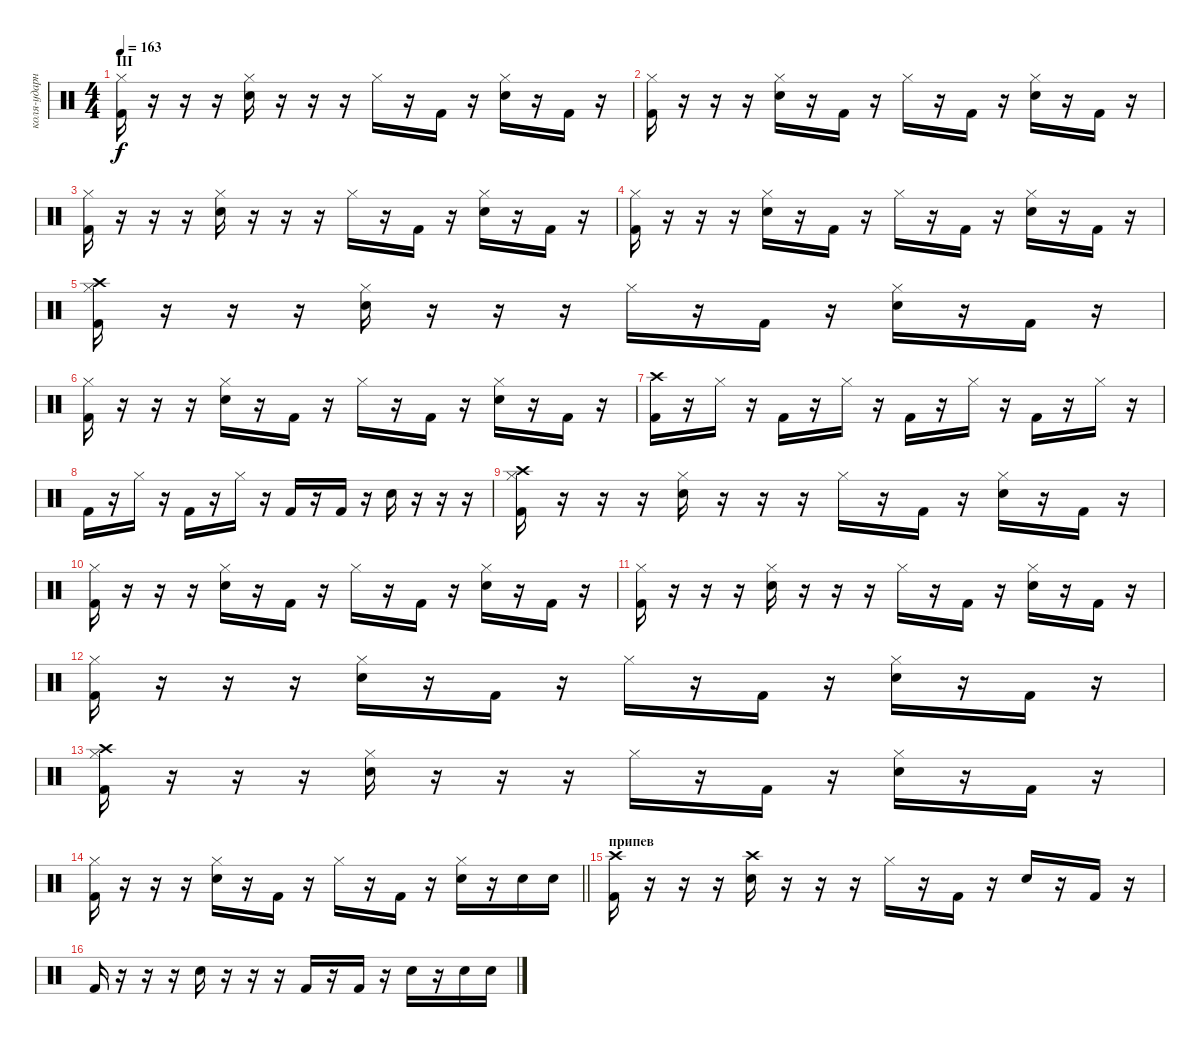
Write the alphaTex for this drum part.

\track ("коля-ударные" "коля-ударн") {instrument percussion}
\staff {score}
\articulation defaults
\ts (4 4)
\section ("" "III")
\tempo 163
\clef neutral
\ks c
("Kick (hit) 2" "Hi-Hat (closed)").16{dy f} r.16 r.16 r.16 ("Electric Snare (hit)" "Hi-Hat (closed)").16 r.16 r.16 r.16 "Hi-Hat (closed)".16 r.16 "Kick (hit) 2".16 r.16 ("Electric Snare (hit)" "Hi-Hat (closed)").16 r.16 "Kick (hit) 2".16 r.16 |
("Kick (hit) 2" "Hi-Hat (closed)").16 r.16 r.16 r.16 ("Electric Snare (hit)" "Hi-Hat (closed)").16 r.16 "Kick (hit) 2".16 r.16 "Hi-Hat (closed)".16 r.16 "Kick (hit) 2".16 r.16 ("Electric Snare (hit)" "Hi-Hat (closed)").16 r.16 "Kick (hit) 2".16 r.16 |
("Kick (hit) 2" "Hi-Hat (closed)").16 r.16 r.16 r.16 ("Electric Snare (hit)" "Hi-Hat (closed)").16 r.16 r.16 r.16 "Hi-Hat (closed)".16 r.16 "Kick (hit) 2".16 r.16 ("Electric Snare (hit)" "Hi-Hat (closed)").16 r.16 "Kick (hit) 2".16 r.16 |
("Kick (hit) 2" "Hi-Hat (closed)").16 r.16 r.16 r.16 ("Electric Snare (hit)" "Hi-Hat (closed)").16 r.16 "Kick (hit) 2".16 r.16 "Hi-Hat (closed)".16 r.16 "Kick (hit) 2".16 r.16 ("Electric Snare (hit)" "Hi-Hat (closed)").16 r.16 "Kick (hit) 2".16 r.16 |
("Kick (hit) 2" "Crash high (hit)" "Hi-Hat (closed)").16 r.16 r.16 r.16 ("Electric Snare (hit)" "Hi-Hat (closed)").16 r.16 r.16 r.16 "Hi-Hat (closed)".16 r.16 "Kick (hit) 2".16 r.16 ("Electric Snare (hit)" "Hi-Hat (closed)").16 r.16 "Kick (hit) 2".16 r.16 |
("Kick (hit) 2" "Hi-Hat (closed)").16 r.16 r.16 r.16 ("Electric Snare (hit)" "Hi-Hat (closed)").16 r.16 "Kick (hit) 2".16 r.16 "Hi-Hat (closed)".16 r.16 "Kick (hit) 2".16 r.16 ("Electric Snare (hit)" "Hi-Hat (closed)").16 r.16 "Kick (hit) 2".16 r.16 |
("Kick (hit) 2" "Crash high (hit)").16 r.16 "Hi-Hat (closed)".16 r.16 "Kick (hit) 2".16 r.16 "Hi-Hat (closed)".16 r.16 "Kick (hit) 2".16 r.16 "Hi-Hat (closed)".16 r.16 "Kick (hit) 2".16 r.16 "Hi-Hat (closed)".16 r.16 |
"Kick (hit) 2".16 r.16 "Hi-Hat (closed)".16 r.16 "Kick (hit) 2".16 r.16 "Hi-Hat (closed)".16 r.16 "Kick (hit) 2".16 r.16 "Kick (hit) 2".16 r.16 "Electric Snare (hit)".16 r.16 r.16 r.16 |
("Kick (hit) 2" "Crash high (hit)" "Hi-Hat (closed)").16 r.16 r.16 r.16 ("Electric Snare (hit)" "Hi-Hat (closed)").16 r.16 r.16 r.16 "Hi-Hat (closed)".16 r.16 "Kick (hit) 2".16 r.16 ("Electric Snare (hit)" "Hi-Hat (closed)").16 r.16 "Kick (hit) 2".16 r.16 |
("Kick (hit) 2" "Hi-Hat (closed)").16 r.16 r.16 r.16 ("Electric Snare (hit)" "Hi-Hat (closed)").16 r.16 "Kick (hit) 2".16 r.16 "Hi-Hat (closed)".16 r.16 "Kick (hit) 2".16 r.16 ("Electric Snare (hit)" "Hi-Hat (closed)").16 r.16 "Kick (hit) 2".16 r.16 |
("Kick (hit) 2" "Hi-Hat (closed)").16 r.16 r.16 r.16 ("Electric Snare (hit)" "Hi-Hat (closed)").16 r.16 r.16 r.16 "Hi-Hat (closed)".16 r.16 "Kick (hit) 2".16 r.16 ("Electric Snare (hit)" "Hi-Hat (closed)").16 r.16 "Kick (hit) 2".16 r.16 |
("Kick (hit) 2" "Hi-Hat (closed)").16 r.16 r.16 r.16 ("Electric Snare (hit)" "Hi-Hat (closed)").16 r.16 "Kick (hit) 2".16 r.16 "Hi-Hat (closed)".16 r.16 "Kick (hit) 2".16 r.16 ("Electric Snare (hit)" "Hi-Hat (closed)").16 r.16 "Kick (hit) 2".16 r.16 |
("Kick (hit) 2" "Crash high (hit)" "Hi-Hat (closed)").16 r.16 r.16 r.16 ("Electric Snare (hit)" "Hi-Hat (closed)").16 r.16 r.16 r.16 "Hi-Hat (closed)".16 r.16 "Kick (hit) 2".16 r.16 ("Electric Snare (hit)" "Hi-Hat (closed)").16 r.16 "Kick (hit) 2".16 r.16 |
\barLineRight lightlight
("Kick (hit) 2" "Hi-Hat (closed)").16 r.16 r.16 r.16 ("Electric Snare (hit)" "Hi-Hat (closed)").16 r.16 "Kick (hit) 2".16 r.16 "Hi-Hat (closed)".16 r.16 "Kick (hit) 2".16 r.16 ("Electric Snare (hit)" "Hi-Hat (closed)").16 r.16 "Electric Snare (hit)".16 "Electric Snare (hit)".16 |
\section ("" "припев")
("Kick (hit) 2" "Crash high (hit)").16 r.16 r.16 r.16 ("Electric Snare (hit)" "Crash high (hit)").16 r.16 r.16 r.16 "Hi-Hat (closed)".16 r.16 "Kick (hit) 2".16 r.16 "Electric Snare (hit)".16 r.16 "Kick (hit) 2".16 r.16 |
"Kick (hit) 2".16 r.16 r.16 r.16 "Electric Snare (hit)".16 r.16 r.16 r.16 "Kick (hit) 2".16 r.16 "Kick (hit) 2".16 r.16 "Electric Snare (hit)".16 r.16 "Electric Snare (hit)".16 "Electric Snare (hit)".16
